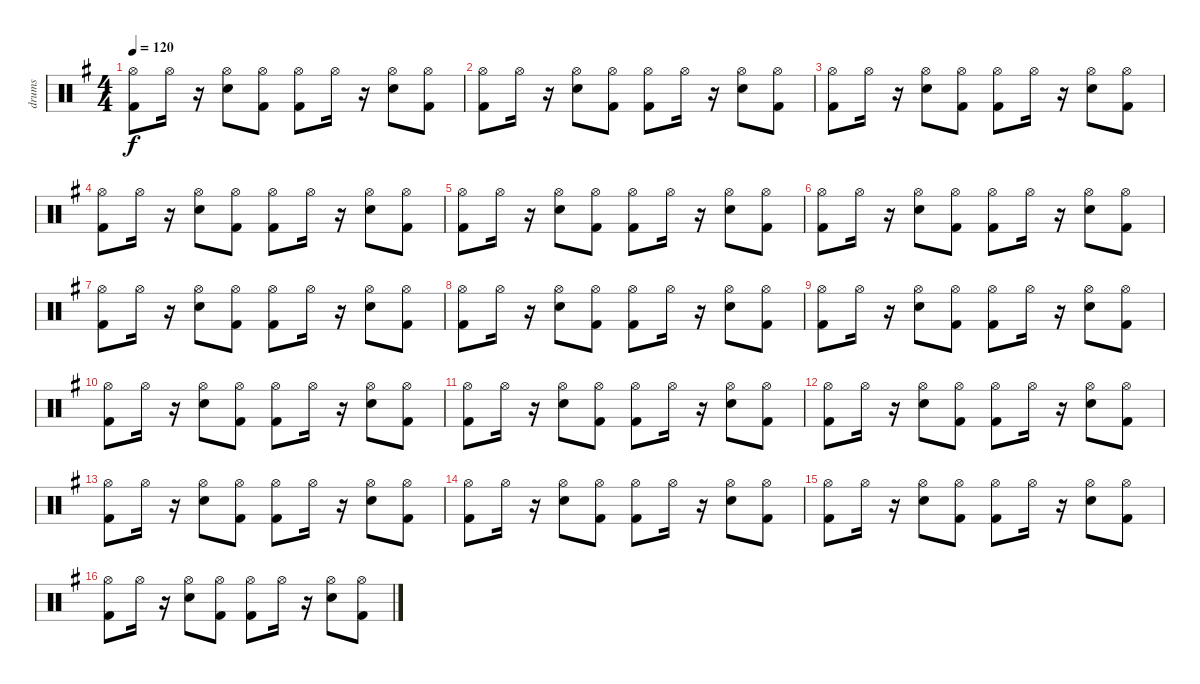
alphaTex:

\track ("drums" "drums") {instrument percussion bank 177}
\staff {score}
\articulation defaults
\ts (4 4)
\tempo 120
\clef neutral
\ks g
("Hi-Hat (open)" "Kick (hit) 2").8{dy f} "Hi-Hat (open)".16 r.16 ("Electric Snare (hit)" "Hi-Hat (open)").8 ("Kick (hit) 2" "Hi-Hat (open)").8 ("Kick (hit) 2" "Hi-Hat (open)").8 "Hi-Hat (open)".16 r.16 ("Electric Snare (hit)" "Hi-Hat (open)").8 ("Kick (hit) 2" "Hi-Hat (open)").8 |
("Kick (hit) 2" "Hi-Hat (open)").8 "Hi-Hat (open)".16 r.16 ("Electric Snare (hit)" "Hi-Hat (open)").8 ("Kick (hit) 2" "Hi-Hat (open)").8 ("Kick (hit) 2" "Hi-Hat (open)").8 "Hi-Hat (open)".16 r.16 ("Electric Snare (hit)" "Hi-Hat (open)").8 ("Kick (hit) 2" "Hi-Hat (open)").8 |
("Hi-Hat (open)" "Kick (hit) 2").8 "Hi-Hat (open)".16 r.16 ("Electric Snare (hit)" "Hi-Hat (open)").8 ("Kick (hit) 2" "Hi-Hat (open)").8 ("Kick (hit) 2" "Hi-Hat (open)").8 "Hi-Hat (open)".16 r.16 ("Electric Snare (hit)" "Hi-Hat (open)").8 ("Kick (hit) 2" "Hi-Hat (open)").8 |
("Kick (hit) 2" "Hi-Hat (open)").8 "Hi-Hat (open)".16 r.16 ("Electric Snare (hit)" "Hi-Hat (open)").8 ("Kick (hit) 2" "Hi-Hat (open)").8 ("Kick (hit) 2" "Hi-Hat (open)").8 "Hi-Hat (open)".16 r.16 ("Electric Snare (hit)" "Hi-Hat (open)").8 ("Kick (hit) 2" "Hi-Hat (open)").8 |
("Kick (hit) 2" "Hi-Hat (open)").8 "Hi-Hat (open)".16 r.16 ("Electric Snare (hit)" "Hi-Hat (open)").8 ("Kick (hit) 2" "Hi-Hat (open)").8 ("Kick (hit) 2" "Hi-Hat (open)").8 "Hi-Hat (open)".16 r.16 ("Electric Snare (hit)" "Hi-Hat (open)").8 ("Kick (hit) 2" "Hi-Hat (open)").8 |
("Kick (hit) 2" "Hi-Hat (open)").8 "Hi-Hat (open)".16 r.16 ("Electric Snare (hit)" "Hi-Hat (open)").8 ("Kick (hit) 2" "Hi-Hat (open)").8 ("Kick (hit) 2" "Hi-Hat (open)").8 "Hi-Hat (open)".16 r.16 ("Electric Snare (hit)" "Hi-Hat (open)").8 ("Kick (hit) 2" "Hi-Hat (open)").8 |
("Kick (hit) 2" "Hi-Hat (open)").8 "Hi-Hat (open)".16 r.16 ("Electric Snare (hit)" "Hi-Hat (open)").8 ("Kick (hit) 2" "Hi-Hat (open)").8 ("Kick (hit) 2" "Hi-Hat (open)").8 "Hi-Hat (open)".16 r.16 ("Electric Snare (hit)" "Hi-Hat (open)").8 ("Kick (hit) 2" "Hi-Hat (open)").8 |
("Kick (hit) 2" "Hi-Hat (open)").8 "Hi-Hat (open)".16 r.16 ("Electric Snare (hit)" "Hi-Hat (open)").8 ("Kick (hit) 2" "Hi-Hat (open)").8 ("Kick (hit) 2" "Hi-Hat (open)").8 "Hi-Hat (open)".16 r.16 ("Electric Snare (hit)" "Hi-Hat (open)").8 ("Kick (hit) 2" "Hi-Hat (open)").8 |
("Kick (hit) 2" "Hi-Hat (open)").8 "Hi-Hat (open)".16 r.16 ("Electric Snare (hit)" "Hi-Hat (open)").8 ("Kick (hit) 2" "Hi-Hat (open)").8 ("Kick (hit) 2" "Hi-Hat (open)").8 "Hi-Hat (open)".16 r.16 ("Electric Snare (hit)" "Hi-Hat (open)").8 ("Kick (hit) 2" "Hi-Hat (open)").8 |
("Kick (hit) 2" "Hi-Hat (open)").8 "Hi-Hat (open)".16 r.16 ("Electric Snare (hit)" "Hi-Hat (open)").8 ("Kick (hit) 2" "Hi-Hat (open)").8 ("Kick (hit) 2" "Hi-Hat (open)").8 "Hi-Hat (open)".16 r.16 ("Electric Snare (hit)" "Hi-Hat (open)").8 ("Kick (hit) 2" "Hi-Hat (open)").8 |
("Kick (hit) 2" "Hi-Hat (open)").8 "Hi-Hat (open)".16 r.16 ("Electric Snare (hit)" "Hi-Hat (open)").8 ("Kick (hit) 2" "Hi-Hat (open)").8 ("Kick (hit) 2" "Hi-Hat (open)").8 "Hi-Hat (open)".16 r.16 ("Electric Snare (hit)" "Hi-Hat (open)").8 ("Kick (hit) 2" "Hi-Hat (open)").8 |
("Kick (hit) 2" "Hi-Hat (open)").8 "Hi-Hat (open)".16 r.16 ("Electric Snare (hit)" "Hi-Hat (open)").8 ("Kick (hit) 2" "Hi-Hat (open)").8 ("Kick (hit) 2" "Hi-Hat (open)").8 "Hi-Hat (open)".16 r.16 ("Electric Snare (hit)" "Hi-Hat (open)").8 ("Kick (hit) 2" "Hi-Hat (open)").8 |
("Kick (hit) 2" "Hi-Hat (open)").8 "Hi-Hat (open)".16 r.16 ("Electric Snare (hit)" "Hi-Hat (open)").8 ("Kick (hit) 2" "Hi-Hat (open)").8 ("Kick (hit) 2" "Hi-Hat (open)").8 "Hi-Hat (open)".16 r.16 ("Electric Snare (hit)" "Hi-Hat (open)").8 ("Kick (hit) 2" "Hi-Hat (open)").8 |
("Hi-Hat (open)" "Kick (hit) 2").8 "Hi-Hat (open)".16 r.16 ("Electric Snare (hit)" "Hi-Hat (open)").8 ("Kick (hit) 2" "Hi-Hat (open)").8 ("Kick (hit) 2" "Hi-Hat (open)").8 "Hi-Hat (open)".16 r.16 ("Electric Snare (hit)" "Hi-Hat (open)").8 ("Kick (hit) 2" "Hi-Hat (open)").8 |
("Hi-Hat (open)" "Kick (hit) 2").8 "Hi-Hat (open)".16 r.16 ("Electric Snare (hit)" "Hi-Hat (open)").8 ("Kick (hit) 2" "Hi-Hat (open)").8 ("Kick (hit) 2" "Hi-Hat (open)").8 "Hi-Hat (open)".16 r.16 ("Electric Snare (hit)" "Hi-Hat (open)").8 ("Kick (hit) 2" "Hi-Hat (open)").8 |
("Hi-Hat (open)" "Kick (hit) 2").8 "Hi-Hat (open)".16 r.16 ("Electric Snare (hit)" "Hi-Hat (open)").8 ("Kick (hit) 2" "Hi-Hat (open)").8 ("Kick (hit) 2" "Hi-Hat (open)").8 "Hi-Hat (open)".16 r.16 ("Electric Snare (hit)" "Hi-Hat (open)").8 ("Kick (hit) 2" "Hi-Hat (open)").8
